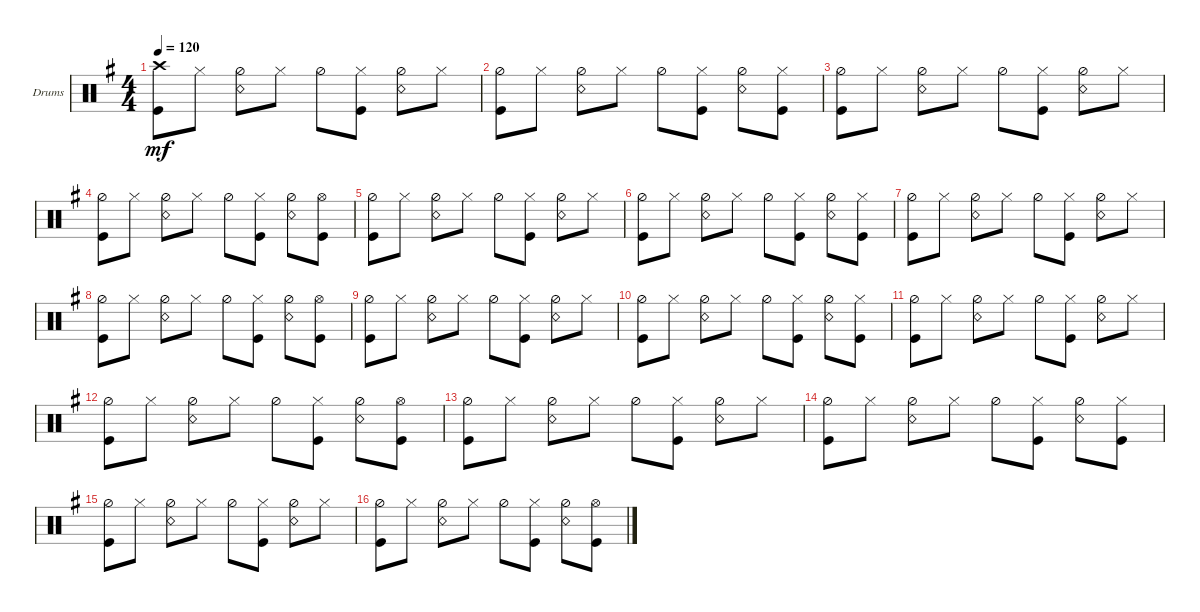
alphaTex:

\defaultSystemsLayout 4
\bracketExtendMode groupsimilarinstruments
\firstSystemTrackNameOrientation horizontal
\otherSystemsTrackNameOrientation horizontal
\track ("Drumkit" "Drums") {instrument percussion}
\staff {score}
\articulation defaults
\ts (4 4)
\tempo 120
\clef neutral
\ks eminor
("Kick (hit)" "Crash high (hit)").8{dy mf} "Hi-Hat (closed)".8 ("Hi-Hat (half)" "Snare (rim shot)").8 "Hi-Hat (closed)".8 "Hi-Hat (half)".8 ("Kick (hit)" "Hi-Hat (closed)").8 ("Hi-Hat (half)" "Snare (rim shot)").8 "Hi-Hat (closed)".8 |
("Kick (hit)" "Hi-Hat (half)").8 "Hi-Hat (closed)".8 ("Hi-Hat (half)" "Snare (rim shot)").8 "Hi-Hat (closed)".8 "Hi-Hat (half)".8 ("Kick (hit)" "Hi-Hat (closed)").8 ("Hi-Hat (half)" "Snare (rim shot)").8 ("Hi-Hat (closed)" "Kick (hit)").8 |
("Kick (hit)" "Hi-Hat (half)").8 "Hi-Hat (closed)".8 ("Hi-Hat (half)" "Snare (rim shot)").8 "Hi-Hat (closed)".8 "Hi-Hat (half)".8 ("Kick (hit)" "Hi-Hat (closed)").8 ("Hi-Hat (half)" "Snare (rim shot)").8 "Hi-Hat (closed)".8 |
("Kick (hit)" "Hi-Hat (half)").8 "Hi-Hat (closed)".8 ("Hi-Hat (half)" "Snare (rim shot)").8 "Hi-Hat (closed)".8 "Hi-Hat (half)".8 ("Kick (hit)" "Hi-Hat (closed)").8 ("Hi-Hat (half)" "Snare (rim shot)").8 ("Hi-Hat (open)" "Kick (hit)").8 |
("Kick (hit)" "Hi-Hat (half)").8 "Hi-Hat (closed)".8 ("Hi-Hat (half)" "Snare (rim shot)").8 "Hi-Hat (closed)".8 "Hi-Hat (half)".8 ("Kick (hit)" "Hi-Hat (closed)").8 ("Hi-Hat (half)" "Snare (rim shot)").8 "Hi-Hat (closed)".8 |
("Kick (hit)" "Hi-Hat (half)").8 "Hi-Hat (closed)".8 ("Hi-Hat (half)" "Snare (rim shot)").8 "Hi-Hat (closed)".8 "Hi-Hat (half)".8 ("Kick (hit)" "Hi-Hat (closed)").8 ("Hi-Hat (half)" "Snare (rim shot)").8 ("Hi-Hat (closed)" "Kick (hit)").8 |
("Kick (hit)" "Hi-Hat (half)").8 "Hi-Hat (closed)".8 ("Hi-Hat (half)" "Snare (rim shot)").8 "Hi-Hat (closed)".8 "Hi-Hat (half)".8 ("Kick (hit)" "Hi-Hat (closed)").8 ("Hi-Hat (half)" "Snare (rim shot)").8 "Hi-Hat (closed)".8 |
("Kick (hit)" "Hi-Hat (half)").8 "Hi-Hat (closed)".8 ("Hi-Hat (half)" "Snare (rim shot)").8 "Hi-Hat (closed)".8 "Hi-Hat (half)".8 ("Kick (hit)" "Hi-Hat (closed)").8 ("Hi-Hat (half)" "Snare (rim shot)").8 ("Hi-Hat (open)" "Kick (hit)").8 |
("Kick (hit)" "Hi-Hat (half)").8 "Hi-Hat (closed)".8 ("Hi-Hat (half)" "Snare (rim shot)").8 "Hi-Hat (closed)".8 "Hi-Hat (half)".8 ("Kick (hit)" "Hi-Hat (closed)").8 ("Hi-Hat (half)" "Snare (rim shot)").8 "Hi-Hat (closed)".8 |
("Kick (hit)" "Hi-Hat (half)").8 "Hi-Hat (closed)".8 ("Hi-Hat (half)" "Snare (rim shot)").8 "Hi-Hat (closed)".8 "Hi-Hat (half)".8 ("Kick (hit)" "Hi-Hat (closed)").8 ("Hi-Hat (half)" "Snare (rim shot)").8 ("Hi-Hat (closed)" "Kick (hit)").8 |
("Kick (hit)" "Hi-Hat (half)").8 "Hi-Hat (closed)".8 ("Hi-Hat (half)" "Snare (rim shot)").8 "Hi-Hat (closed)".8 "Hi-Hat (half)".8 ("Kick (hit)" "Hi-Hat (closed)").8 ("Hi-Hat (half)" "Snare (rim shot)").8 "Hi-Hat (closed)".8 |
("Kick (hit)" "Hi-Hat (half)").8 "Hi-Hat (closed)".8 ("Hi-Hat (half)" "Snare (rim shot)").8 "Hi-Hat (closed)".8 "Hi-Hat (half)".8 ("Kick (hit)" "Hi-Hat (closed)").8 ("Hi-Hat (half)" "Snare (rim shot)").8 ("Hi-Hat (open)" "Kick (hit)").8 |
("Kick (hit)" "Hi-Hat (half)").8 "Hi-Hat (closed)".8 ("Hi-Hat (half)" "Snare (rim shot)").8 "Hi-Hat (closed)".8 "Hi-Hat (half)".8 ("Kick (hit)" "Hi-Hat (closed)").8 ("Hi-Hat (half)" "Snare (rim shot)").8 "Hi-Hat (closed)".8 |
("Kick (hit)" "Hi-Hat (half)").8 "Hi-Hat (closed)".8 ("Hi-Hat (half)" "Snare (rim shot)").8 "Hi-Hat (closed)".8 "Hi-Hat (half)".8 ("Kick (hit)" "Hi-Hat (closed)").8 ("Hi-Hat (half)" "Snare (rim shot)").8 ("Hi-Hat (closed)" "Kick (hit)").8 |
("Kick (hit)" "Hi-Hat (half)").8 "Hi-Hat (closed)".8 ("Hi-Hat (half)" "Snare (rim shot)").8 "Hi-Hat (closed)".8 "Hi-Hat (half)".8 ("Kick (hit)" "Hi-Hat (closed)").8 ("Hi-Hat (half)" "Snare (rim shot)").8 "Hi-Hat (closed)".8 |
("Kick (hit)" "Hi-Hat (half)").8 "Hi-Hat (closed)".8 ("Hi-Hat (half)" "Snare (rim shot)").8 "Hi-Hat (closed)".8 "Hi-Hat (half)".8 ("Kick (hit)" "Hi-Hat (closed)").8 ("Hi-Hat (half)" "Snare (rim shot)").8 ("Hi-Hat (open)" "Kick (hit)").8
